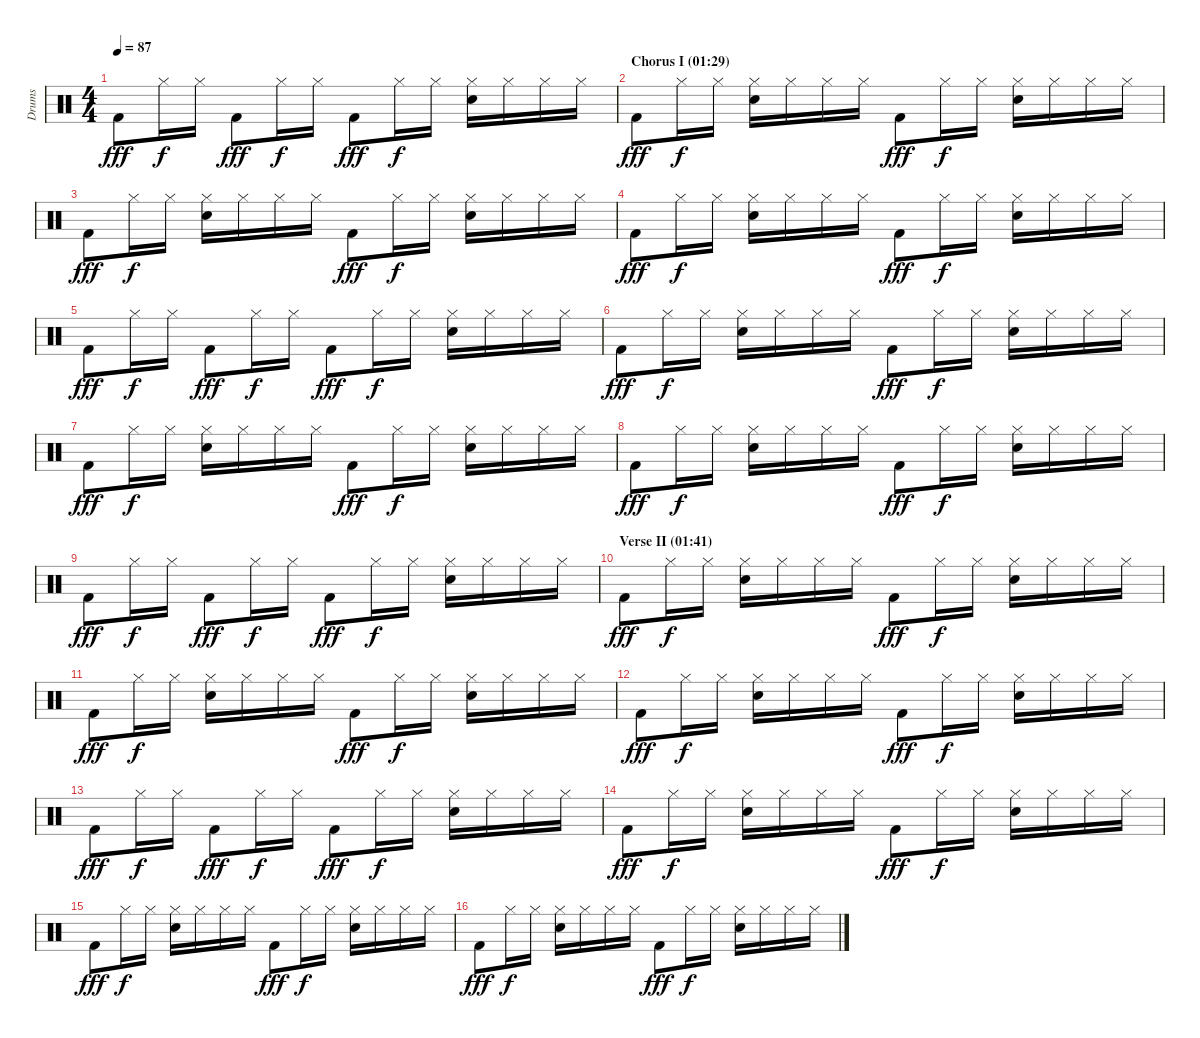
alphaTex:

\track ("Drums" "Drums") {instrument percussion}
\staff {score}
\articulation defaults
\ts (4 4)
\tempo 87
\clef neutral
\ks c "Kick (hit) 2".8{dy fff} "Hi-Hat (closed)".16{dy f} "Hi-Hat (closed)".16 "Kick (hit) 2".8{dy fff} "Hi-Hat (closed)".16{dy f} "Hi-Hat (closed)".16 "Kick (hit) 2".8{dy fff} "Hi-Hat (closed)".16{dy f} "Hi-Hat (closed)".16
("Hi-Hat (closed)" "Electric Snare (hit)").16 "Hi-Hat (closed)".16 "Hi-Hat (closed)".16 "Hi-Hat (closed)".16 |
\section ("" "Chorus I (01:29)")
"Kick (hit) 2".8{dy fff} "Hi-Hat (closed)".16{dy f} "Hi-Hat (closed)".16 ("Hi-Hat (closed)" "Electric Snare (hit)").16 "Hi-Hat (closed)".16 "Hi-Hat (closed)".16 "Hi-Hat (closed)".16 "Kick (hit) 2".8{dy fff} "Hi-Hat (closed)".16{dy f} "Hi-Hat (closed)".16 ("Hi-Hat (closed)" "Electric Snare (hit)").16 "Hi-Hat (closed)".16 "Hi-Hat (closed)".16 "Hi-Hat (closed)".16 |
"Kick (hit) 2".8{dy fff} "Hi-Hat (closed)".16{dy f} "Hi-Hat (closed)".16 ("Hi-Hat (closed)" "Electric Snare (hit)").16 "Hi-Hat (closed)".16 "Hi-Hat (closed)".16 "Hi-Hat (closed)".16 "Kick (hit) 2".8{dy fff} "Hi-Hat (closed)".16{dy f} "Hi-Hat (closed)".16 ("Hi-Hat (closed)" "Electric Snare (hit)").16 "Hi-Hat (closed)".16 "Hi-Hat (closed)".16 "Hi-Hat (closed)".16 |
"Kick (hit) 2".8{dy fff} "Hi-Hat (closed)".16{dy f} "Hi-Hat (closed)".16 ("Hi-Hat (closed)" "Electric Snare (hit)").16 "Hi-Hat (closed)".16 "Hi-Hat (closed)".16 "Hi-Hat (closed)".16 "Kick (hit) 2".8{dy fff} "Hi-Hat (closed)".16{dy f} "Hi-Hat (closed)".16 ("Hi-Hat (closed)" "Electric Snare (hit)").16 "Hi-Hat (closed)".16 "Hi-Hat (closed)".16 "Hi-Hat (closed)".16 |
"Kick (hit) 2".8{dy fff} "Hi-Hat (closed)".16{dy f} "Hi-Hat (closed)".16 "Kick (hit) 2".8{dy fff} "Hi-Hat (closed)".16{dy f} "Hi-Hat (closed)".16 "Kick (hit) 2".8{dy fff} "Hi-Hat (closed)".16{dy f} "Hi-Hat (closed)".16 ("Hi-Hat (closed)" "Electric Snare (hit)").16 "Hi-Hat (closed)".16 "Hi-Hat (closed)".16 "Hi-Hat (closed)".16 |
"Kick (hit) 2".8{dy fff} "Hi-Hat (closed)".16{dy f} "Hi-Hat (closed)".16 ("Hi-Hat (closed)" "Electric Snare (hit)").16 "Hi-Hat (closed)".16 "Hi-Hat (closed)".16 "Hi-Hat (closed)".16 "Kick (hit) 2".8{dy fff} "Hi-Hat (closed)".16{dy f} "Hi-Hat (closed)".16 ("Hi-Hat (closed)" "Electric Snare (hit)").16 "Hi-Hat (closed)".16 "Hi-Hat (closed)".16 "Hi-Hat (closed)".16 |
"Kick (hit) 2".8{dy fff} "Hi-Hat (closed)".16{dy f} "Hi-Hat (closed)".16 ("Hi-Hat (closed)" "Electric Snare (hit)").16 "Hi-Hat (closed)".16 "Hi-Hat (closed)".16 "Hi-Hat (closed)".16 "Kick (hit) 2".8{dy fff} "Hi-Hat (closed)".16{dy f} "Hi-Hat (closed)".16 ("Hi-Hat (closed)" "Electric Snare (hit)").16 "Hi-Hat (closed)".16 "Hi-Hat (closed)".16 "Hi-Hat (closed)".16 |
"Kick (hit) 2".8{dy fff} "Hi-Hat (closed)".16{dy f} "Hi-Hat (closed)".16 ("Hi-Hat (closed)" "Electric Snare (hit)").16 "Hi-Hat (closed)".16 "Hi-Hat (closed)".16 "Hi-Hat (closed)".16 "Kick (hit) 2".8{dy fff} "Hi-Hat (closed)".16{dy f} "Hi-Hat (closed)".16 ("Hi-Hat (closed)" "Electric Snare (hit)").16 "Hi-Hat (closed)".16 "Hi-Hat (closed)".16 "Hi-Hat (closed)".16 |
"Kick (hit) 2".8{dy fff} "Hi-Hat (closed)".16{dy f} "Hi-Hat (closed)".16 "Kick (hit) 2".8{dy fff} "Hi-Hat (closed)".16{dy f} "Hi-Hat (closed)".16 "Kick (hit) 2".8{dy fff} "Hi-Hat (closed)".16{dy f} "Hi-Hat (closed)".16 ("Hi-Hat (closed)" "Electric Snare (hit)").16 "Hi-Hat (closed)".16 "Hi-Hat (closed)".16 "Hi-Hat (closed)".16 |
\section ("" "Verse II (01:41)")
"Kick (hit) 2".8{dy fff} "Hi-Hat (closed)".16{dy f} "Hi-Hat (closed)".16 ("Hi-Hat (closed)" "Electric Snare (hit)").16 "Hi-Hat (closed)".16 "Hi-Hat (closed)".16 "Hi-Hat (closed)".16 "Kick (hit) 2".8{dy fff} "Hi-Hat (closed)".16{dy f} "Hi-Hat (closed)".16 ("Hi-Hat (closed)" "Electric Snare (hit)").16 "Hi-Hat (closed)".16 "Hi-Hat (closed)".16 "Hi-Hat (closed)".16 |
"Kick (hit) 2".8{dy fff} "Hi-Hat (closed)".16{dy f} "Hi-Hat (closed)".16 ("Hi-Hat (closed)" "Electric Snare (hit)").16 "Hi-Hat (closed)".16 "Hi-Hat (closed)".16 "Hi-Hat (closed)".16 "Kick (hit) 2".8{dy fff} "Hi-Hat (closed)".16{dy f} "Hi-Hat (closed)".16 ("Hi-Hat (closed)" "Electric Snare (hit)").16 "Hi-Hat (closed)".16 "Hi-Hat (closed)".16 "Hi-Hat (closed)".16 |
"Kick (hit) 2".8{dy fff} "Hi-Hat (closed)".16{dy f} "Hi-Hat (closed)".16 ("Hi-Hat (closed)" "Electric Snare (hit)").16 "Hi-Hat (closed)".16 "Hi-Hat (closed)".16 "Hi-Hat (closed)".16 "Kick (hit) 2".8{dy fff} "Hi-Hat (closed)".16{dy f} "Hi-Hat (closed)".16 ("Hi-Hat (closed)" "Electric Snare (hit)").16 "Hi-Hat (closed)".16 "Hi-Hat (closed)".16 "Hi-Hat (closed)".16 |
"Kick (hit) 2".8{dy fff} "Hi-Hat (closed)".16{dy f} "Hi-Hat (closed)".16 "Kick (hit) 2".8{dy fff} "Hi-Hat (closed)".16{dy f} "Hi-Hat (closed)".16 "Kick (hit) 2".8{dy fff} "Hi-Hat (closed)".16{dy f} "Hi-Hat (closed)".16 ("Hi-Hat (closed)" "Electric Snare (hit)").16 "Hi-Hat (closed)".16 "Hi-Hat (closed)".16 "Hi-Hat (closed)".16 |
"Kick (hit) 2".8{dy fff} "Hi-Hat (closed)".16{dy f} "Hi-Hat (closed)".16 ("Hi-Hat (closed)" "Electric Snare (hit)").16 "Hi-Hat (closed)".16 "Hi-Hat (closed)".16 "Hi-Hat (closed)".16 "Kick (hit) 2".8{dy fff} "Hi-Hat (closed)".16{dy f} "Hi-Hat (closed)".16 ("Hi-Hat (closed)" "Electric Snare (hit)").16 "Hi-Hat (closed)".16 "Hi-Hat (closed)".16 "Hi-Hat (closed)".16 |
"Kick (hit) 2".8{dy fff} "Hi-Hat (closed)".16{dy f} "Hi-Hat (closed)".16 ("Hi-Hat (closed)" "Electric Snare (hit)").16 "Hi-Hat (closed)".16 "Hi-Hat (closed)".16 "Hi-Hat (closed)".16 "Kick (hit) 2".8{dy fff} "Hi-Hat (closed)".16{dy f} "Hi-Hat (closed)".16 ("Hi-Hat (closed)" "Electric Snare (hit)").16 "Hi-Hat (closed)".16 "Hi-Hat (closed)".16 "Hi-Hat (closed)".16 |
"Kick (hit) 2".8{dy fff} "Hi-Hat (closed)".16{dy f} "Hi-Hat (closed)".16 ("Hi-Hat (closed)" "Electric Snare (hit)").16 "Hi-Hat (closed)".16 "Hi-Hat (closed)".16 "Hi-Hat (closed)".16 "Kick (hit) 2".8{dy fff} "Hi-Hat (closed)".16{dy f} "Hi-Hat (closed)".16 ("Hi-Hat (closed)" "Electric Snare (hit)").16 "Hi-Hat (closed)".16 "Hi-Hat (closed)".16 "Hi-Hat (closed)".16
